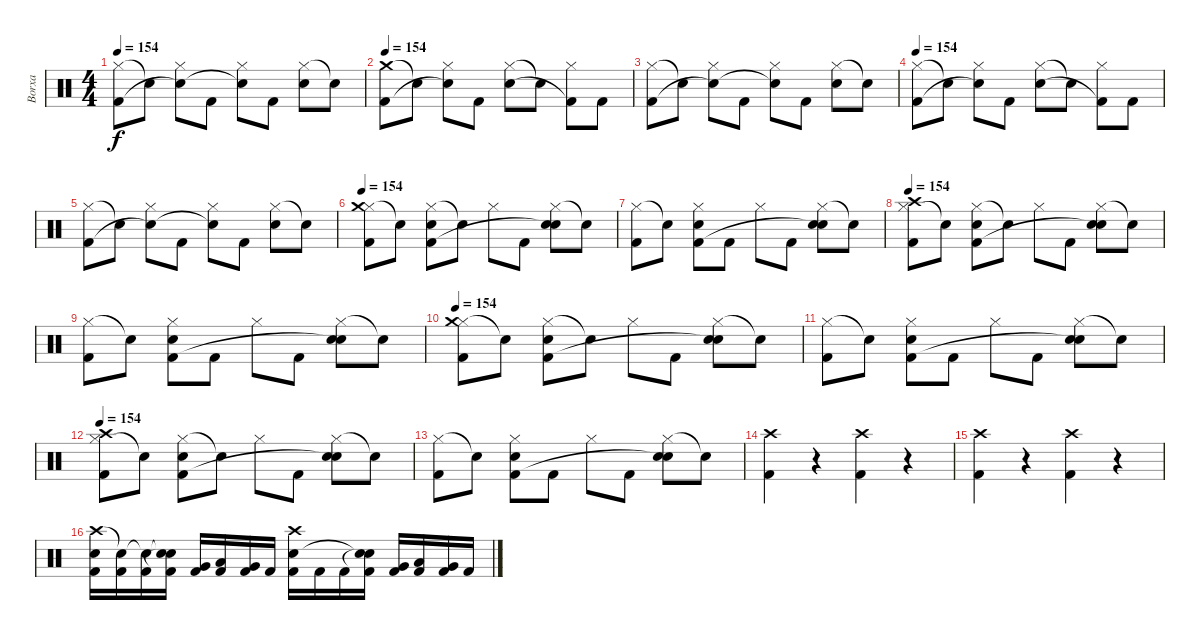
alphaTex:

\track ("Borxa" "Borxa") {instrument percussion}
\staff {score}
\articulation defaults
\ts (4 4)
\tempo 154
\clef neutral
\ks c
("Hi-Hat (closed)" "Kick (hit) 2").8{dy f} "Snare (hit)"{t}.8 ("Hi-Hat (closed)" "Snare (hit)"{t}).8 "Kick (hit) 2".8 ("Hi-Hat (closed)" "Snare (hit)"{t}).8 "Kick (hit) 2".8 ("Hi-Hat (closed)" "Snare (hit) 2").8 "Snare (hit)"{t}.8 |
\tempo 154
("Crash medium (hit)" "Kick (hit) 2").8 "Snare (hit)"{t}.8 ("Hi-Hat (closed)" "Snare (hit)"{t}).8 "Kick (hit) 2".8 ("Hi-Hat (closed)" "Snare (hit) 2").8 "Snare (hit)"{t}.8 ("Hi-Hat (closed)" "Kick (hit) 2"{t}).8 "Kick (hit) 2".8 |
("Hi-Hat (closed)" "Kick (hit) 2").8 "Snare (hit)"{t}.8 ("Hi-Hat (closed)" "Snare (hit)"{t}).8 "Kick (hit) 2".8 ("Hi-Hat (closed)" "Snare (hit)"{t}).8 "Kick (hit) 2".8 ("Hi-Hat (closed)" "Snare (hit) 2").8 "Snare (hit)"{t}.8 |
\tempo 154
("Hi-Hat (closed)" "Kick (hit) 2").8 "Snare (hit)"{t}.8 ("Hi-Hat (closed)" "Snare (hit)"{t}).8 "Kick (hit) 2".8 ("Hi-Hat (closed)" "Snare (hit) 2").8 "Snare (hit)"{t}.8 ("Hi-Hat (closed)" "Kick (hit) 2"{t}).8 "Kick (hit) 2".8 |
("Hi-Hat (closed)" "Kick (hit) 2").8 "Snare (hit)"{t}.8 ("Hi-Hat (closed)" "Snare (hit)"{t}).8 "Kick (hit) 2".8 ("Hi-Hat (closed)" "Snare (hit)"{t}).8 "Kick (hit) 2".8 ("Hi-Hat (closed)" "Snare (hit) 2").8 "Snare (hit)"{t}.8 |
\tempo 154
("Hi-Hat (closed)" "Crash medium (hit)" "Kick (hit) 2").8 "Snare (hit)"{t}.8 ("Hi-Hat (closed)" "Snare (hit) 2" "Kick (hit) 2").8 "Snare (hit)"{t}.8 "Hi-Hat (closed)".8 "Kick (hit) 2".8 ("Hi-Hat (closed)" "Snare (hit) 2" "Snare (hit)"{t}).8 "Snare (hit)"{t}.8 |
("Hi-Hat (closed)" "Kick (hit) 2").8 "Snare (hit)"{t}.8 ("Hi-Hat (closed)" "Snare (hit) 2" "Kick (hit) 2").8 "Kick (hit) 2".8 "Hi-Hat (closed)".8 "Kick (hit) 2".8 ("Hi-Hat (closed)" "Snare (hit) 2" "Snare (hit)"{t}).8 "Snare (hit)"{t}.8 |
\tempo 154
("Hi-Hat (closed)" "Crash high (hit)" "Kick (hit) 2").8 "Snare (hit)"{t}.8 ("Hi-Hat (closed)" "Snare (hit) 2" "Kick (hit) 2").8 "Snare (hit)"{t}.8 "Hi-Hat (closed)".8 "Kick (hit) 2".8 ("Hi-Hat (closed)" "Snare (hit) 2" "Snare (hit)"{t}).8 "Snare (hit)"{t}.8 |
("Hi-Hat (closed)" "Kick (hit) 2").8 "Snare (hit)"{t}.8 ("Hi-Hat (closed)" "Snare (hit) 2" "Kick (hit) 2").8 "Kick (hit) 2".8 "Hi-Hat (closed)".8 "Kick (hit) 2".8 ("Hi-Hat (closed)" "Snare (hit) 2" "Snare (hit)"{t}).8 "Snare (hit)"{t}.8 |
\tempo 154
("Hi-Hat (closed)" "Crash medium (hit)" "Kick (hit) 2").8 "Snare (hit)"{t}.8 ("Hi-Hat (closed)" "Snare (hit) 2" "Kick (hit) 2").8 "Snare (hit)"{t}.8 "Hi-Hat (closed)".8 "Kick (hit) 2".8 ("Hi-Hat (closed)" "Snare (hit) 2" "Snare (hit)"{t}).8 "Snare (hit)"{t}.8 |
("Hi-Hat (closed)" "Kick (hit) 2").8 "Snare (hit)"{t}.8 ("Hi-Hat (closed)" "Snare (hit) 2" "Kick (hit) 2").8 "Kick (hit) 2".8 "Hi-Hat (closed)".8 "Kick (hit) 2".8 ("Hi-Hat (closed)" "Snare (hit) 2" "Snare (hit)"{t}).8 "Snare (hit)"{t}.8 |
\tempo 154
("Hi-Hat (closed)" "Crash high (hit)" "Kick (hit) 2").8 "Snare (hit)"{t}.8 ("Hi-Hat (closed)" "Snare (hit) 2" "Kick (hit) 2").8 "Snare (hit)"{t}.8 "Hi-Hat (closed)".8 "Kick (hit) 2".8 ("Hi-Hat (closed)" "Snare (hit) 2" "Snare (hit)"{t}).8 "Snare (hit)"{t}.8 |
("Hi-Hat (closed)" "Kick (hit) 2").8 "Snare (hit)"{t}.8 ("Hi-Hat (closed)" "Snare (hit) 2" "Kick (hit) 2").8 "Kick (hit) 2".8 "Hi-Hat (closed)".8 "Kick (hit) 2".8 ("Hi-Hat (closed)" "Snare (hit) 2" "Snare (hit)"{t}).8 "Snare (hit)"{t}.8 |
("Crash high (hit)" "Kick (hit) 2").4 r.4 ("Crash high (hit)" "Kick (hit) 2").4 r.4 |
("Crash high (hit)" "Kick (hit) 2").4 r.4 ("Crash high (hit)" "Kick (hit) 2").4 r.4 |
("Crash high (hit)" "Snare (hit) 2" "Kick (hit) 2").16 ("Snare (hit)"{t} "Kick (hit) 2").16 ("Snare (hit)"{t} "Kick (hit) 2").16 ("Snare (hit)"{t} "Snare (hit)"{t} "Kick (hit) 2").16 ("Very Low Tom (hit)" "Kick (hit) 2").16 ("Low Tom (hit)" "Kick (hit) 2").16 ("Very Low Tom (hit)" "Kick (hit) 2").16 "Kick (hit) 2".16 ("Crash high (hit)" "Snare (hit) 2" "Kick (hit) 2").16 "Kick (hit) 2".16 "Kick (hit) 2".16 ("Snare (hit)"{t} "Snare (hit)"{t} "Kick (hit) 2").16 ("Very Low Tom (hit)" "Kick (hit) 2").16 ("Low Tom (hit)" "Kick (hit) 2").16 ("Very Low Tom (hit)" "Kick (hit) 2").16 "Kick (hit) 2".16
